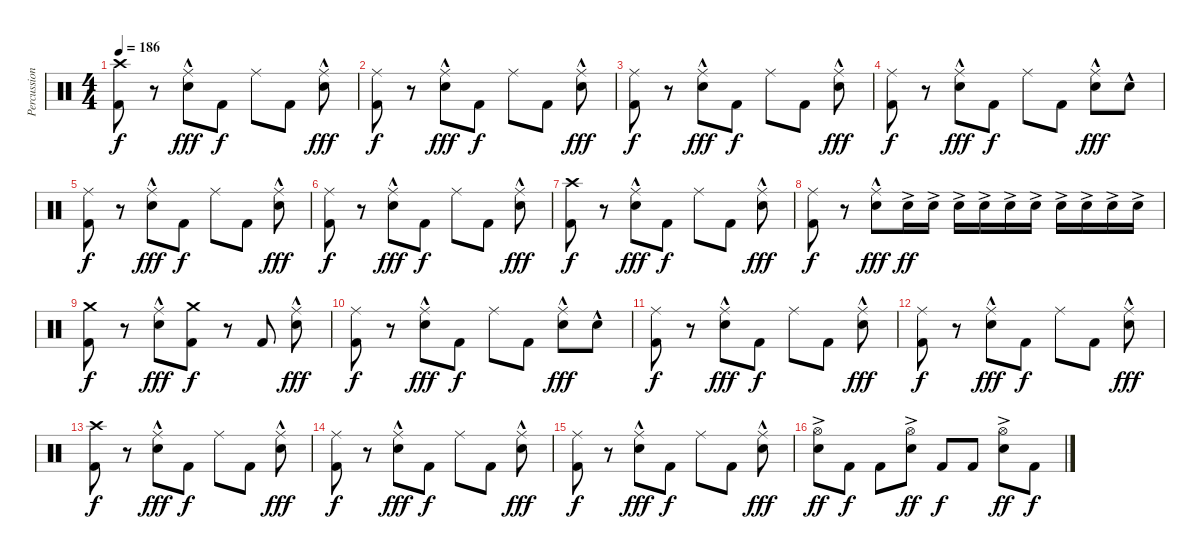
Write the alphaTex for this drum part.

\track ("Percussion" "Percussion") {instrument percussion}
\staff {score}
\articulation defaults
\ts (4 4)
\tempo 186
\clef neutral
\ks c
("Kick (hit) 2" "Crash high (hit)").8{dy f} r.8 ("Electric Snare (hit)"{hac} "Ride (middle)").8{dy fff} "Kick (hit) 2".8{dy f} "Ride (middle)".8 "Kick (hit) 2".8 ("Electric Snare (hit)"{hac} "Ride (middle)").8{dy fff} |
("Kick (hit) 2" "Ride (middle)").8{dy f} r.8 ("Electric Snare (hit)"{hac} "Ride (middle)").8{dy fff} "Kick (hit) 2".8{dy f} "Ride (middle)".8 "Kick (hit) 2".8 ("Electric Snare (hit)"{hac} "Ride (middle)").8{dy fff} |
("Kick (hit) 2" "Ride (middle)").8{dy f} r.8 ("Electric Snare (hit)"{hac} "Ride (middle)").8{dy fff} "Kick (hit) 2".8{dy f} "Ride (middle)".8 "Kick (hit) 2".8 ("Electric Snare (hit)"{hac} "Ride (middle)").8{dy fff} |
("Kick (hit) 2" "Ride (middle)").8{dy f} r.8 ("Electric Snare (hit)"{hac} "Ride (middle)").8{dy fff} "Kick (hit) 2".8{dy f} "Ride (middle)".8 "Kick (hit) 2".8 ("Electric Snare (hit)"{hac} "Ride (middle)").8{dy fff} "Electric Snare (hit)"{hac}.8 |
("Kick (hit) 2" "Ride (middle)").8{dy f} r.8 ("Electric Snare (hit)"{hac} "Ride (middle)").8{dy fff} "Kick (hit) 2".8{dy f} "Ride (middle)".8 "Kick (hit) 2".8 ("Electric Snare (hit)"{hac} "Ride (middle)").8{dy fff} |
("Kick (hit) 2" "Ride (middle)").8{dy f} r.8 ("Electric Snare (hit)"{hac} "Ride (middle)").8{dy fff} "Kick (hit) 2".8{dy f} "Ride (middle)".8 "Kick (hit) 2".8 ("Electric Snare (hit)"{hac} "Ride (middle)").8{dy fff} |
("Kick (hit) 2" "Crash high (hit)").8{dy f} r.8 ("Electric Snare (hit)"{hac} "Ride (middle)").8{dy fff} "Kick (hit) 2".8{dy f} "Ride (middle)".8 "Kick (hit) 2".8 ("Electric Snare (hit)"{hac} "Ride (middle)").8{dy fff} |
("Kick (hit) 2" "Ride (middle)").8{dy f} r.8 ("Electric Snare (hit)"{hac} "Ride (middle)").8{dy fff} "Electric Snare (hit)"{ac}.16{dy ff} "Electric Snare (hit)"{ac}.16 "Electric Snare (hit)"{ac}.16 "Electric Snare (hit)"{ac}.16 "Electric Snare (hit)"{ac}.16 "Electric Snare (hit)"{ac}.16 "Electric Snare (hit)"{ac}.16 "Electric Snare (hit)"{ac}.16 "Electric Snare (hit)"{ac}.16 "Electric Snare (hit)"{ac}.16 |
("Kick (hit) 2" "Crash medium (hit)").8{dy f} r.8 ("Electric Snare (hit)"{hac} "Ride (middle)").8{dy fff} ("Kick (hit) 2" "Crash medium (hit)").8{dy f} r.8 "Kick (hit) 2".8 ("Electric Snare (hit)"{hac} "Ride (middle)").8{dy fff} |
("Kick (hit) 2" "Ride (middle)").8{dy f} r.8 ("Electric Snare (hit)"{hac} "Ride (middle)").8{dy fff} "Kick (hit) 2".8{dy f} "Ride (middle)".8 "Kick (hit) 2".8 ("Electric Snare (hit)"{hac} "Ride (middle)").8{dy fff} "Electric Snare (hit)"{hac}.8 |
("Kick (hit) 2" "Ride (middle)").8{dy f} r.8 ("Electric Snare (hit)"{hac} "Ride (middle)").8{dy fff} "Kick (hit) 2".8{dy f} "Ride (middle)".8 "Kick (hit) 2".8 ("Electric Snare (hit)"{hac} "Ride (middle)").8{dy fff} |
("Kick (hit) 2" "Ride (middle)").8{dy f} r.8 ("Electric Snare (hit)"{hac} "Ride (middle)").8{dy fff} "Kick (hit) 2".8{dy f} "Ride (middle)".8 "Kick (hit) 2".8 ("Electric Snare (hit)"{hac} "Ride (middle)").8{dy fff} |
("Kick (hit) 2" "Crash high (hit)").8{dy f} r.8 ("Electric Snare (hit)"{hac} "Ride (middle)").8{dy fff} "Kick (hit) 2".8{dy f} "Ride (middle)".8 "Kick (hit) 2".8 ("Electric Snare (hit)"{hac} "Ride (middle)").8{dy fff} |
("Kick (hit) 2" "Ride (middle)").8{dy f} r.8 ("Electric Snare (hit)"{hac} "Ride (middle)").8{dy fff} "Kick (hit) 2".8{dy f} "Ride (middle)".8 "Kick (hit) 2".8 ("Electric Snare (hit)"{hac} "Ride (middle)").8{dy fff} |
("Kick (hit) 2" "Ride (middle)").8{dy f} r.8 ("Electric Snare (hit)"{hac} "Ride (middle)").8{dy fff} "Kick (hit) 2".8{dy f} "Ride (middle)".8 "Kick (hit) 2".8 ("Electric Snare (hit)"{hac} "Ride (middle)").8{dy fff} |
("Hi-Hat (open)" "Electric Snare (hit)"{ac}).8{dy ff} "Kick (hit) 2".8{dy f} "Kick (hit) 2".8 ("Electric Snare (hit)"{ac} "Hi-Hat (open)").8{dy ff} "Kick (hit) 2".8{dy f} "Kick (hit) 2".8 ("Electric Snare (hit)"{ac} "Hi-Hat (open)").8{dy ff} "Kick (hit) 2".8{dy f}
